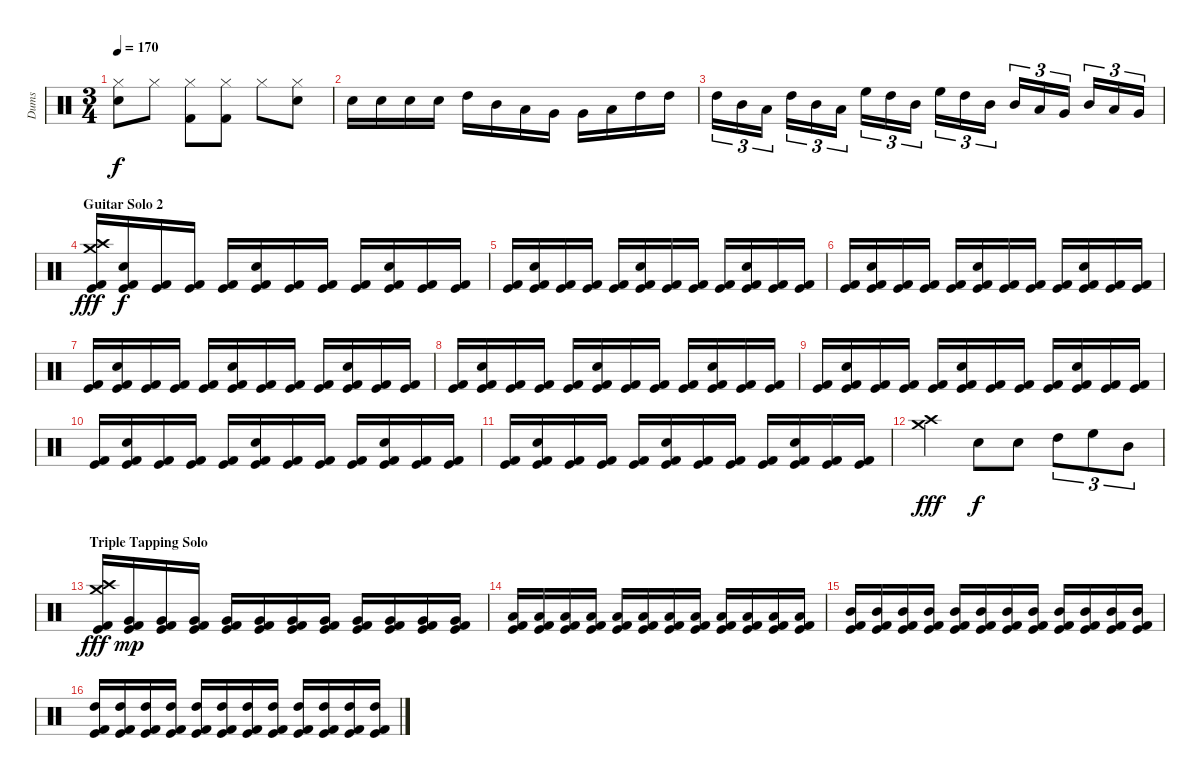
\track ("Dums" "Dums") {instrument percussion}
\staff {score}
\articulation defaults
\ts (3 4)
\tempo 170
\clef neutral
\ks c
("Hi-Hat (closed)" "Electric Snare (hit)").8{dy f} "Hi-Hat (closed)".8 ("Hi-Hat (closed)" "Kick (hit) 2").8 ("Hi-Hat (closed)" "Kick (hit) 2").8 "Hi-Hat (closed)".8 ("Hi-Hat (closed)" "Electric Snare (hit)").8 |
"Electric Snare (hit)".16 "Electric Snare (hit)".16 "Electric Snare (hit)".16 "Electric Snare (hit)".16 "High Tom (hit)".16 "Mid Tom (hit)".16 "Low Tom (hit)".16 "Very Low Tom (hit)".16 "Very Low Tom (hit)".16 "Low Tom (hit)".16 "High Tom (hit)".16 "High Tom (hit)".16 |
"High Tom (hit)".16{tu (3 2)} "Mid Tom (hit)".16{tu (3 2)} "Low Tom (hit)".16{tu (3 2)} "High Tom (hit)".16{tu (3 2)} "Mid Tom (hit)".16{tu (3 2)} "Low Tom (hit)".16{tu (3 2)} "High Floor Tom (hit)".16{tu (3 2)} "High Tom (hit)".16{tu (3 2)} "Mid Tom (hit)".16{tu (3 2)} "High Floor Tom (hit)".16{tu (3 2)} "High Tom (hit)".16{tu (3 2)} "Mid Tom (hit)".16{tu (3 2)} "Mid Tom (hit)".16{tu (3 2)} "Low Tom (hit)".16{tu (3 2)} "Very Low Tom (hit)".16{tu (3 2)} "Mid Tom (hit)".16{tu (3 2)} "Low Tom (hit)".16{tu (3 2)} "Very Low Tom (hit)".16{tu (3 2)} |
\section ("" "Guitar Solo 2")
("Crash high (hit)" "Crash medium (hit)" "Kick (hit)" "Kick (hit) 2").16{dy fff} ("Electric Snare (hit)" "Kick (hit)" "Kick (hit) 2").16{dy f} ("Kick (hit)" "Kick (hit) 2").16 ("Kick (hit)" "Kick (hit) 2").16 ("Kick (hit)" "Kick (hit) 2").16 ("Electric Snare (hit)" "Kick (hit)" "Kick (hit) 2").16 ("Kick (hit)" "Kick (hit) 2").16 ("Kick (hit)" "Kick (hit) 2").16 ("Kick (hit)" "Kick (hit) 2").16 ("Electric Snare (hit)" "Kick (hit)" "Kick (hit) 2").16 ("Kick (hit)" "Kick (hit) 2").16 ("Kick (hit)" "Kick (hit) 2").16 |
("Kick (hit)" "Kick (hit) 2").16 ("Electric Snare (hit)" "Kick (hit)" "Kick (hit) 2").16 ("Kick (hit)" "Kick (hit) 2").16 ("Kick (hit)" "Kick (hit) 2").16 ("Kick (hit)" "Kick (hit) 2").16 ("Electric Snare (hit)" "Kick (hit)" "Kick (hit) 2").16 ("Kick (hit)" "Kick (hit) 2").16 ("Kick (hit)" "Kick (hit) 2").16 ("Kick (hit)" "Kick (hit) 2").16 ("Electric Snare (hit)" "Kick (hit)" "Kick (hit) 2").16 ("Kick (hit)" "Kick (hit) 2").16 ("Kick (hit)" "Kick (hit) 2").16 |
("Kick (hit)" "Kick (hit) 2").16 ("Electric Snare (hit)" "Kick (hit)" "Kick (hit) 2").16 ("Kick (hit)" "Kick (hit) 2").16 ("Kick (hit)" "Kick (hit) 2").16 ("Kick (hit)" "Kick (hit) 2").16 ("Electric Snare (hit)" "Kick (hit)" "Kick (hit) 2").16 ("Kick (hit)" "Kick (hit) 2").16 ("Kick (hit)" "Kick (hit) 2").16 ("Kick (hit)" "Kick (hit) 2").16 ("Electric Snare (hit)" "Kick (hit)" "Kick (hit) 2").16 ("Kick (hit)" "Kick (hit) 2").16 ("Kick (hit)" "Kick (hit) 2").16 |
("Kick (hit)" "Kick (hit) 2").16 ("Electric Snare (hit)" "Kick (hit)" "Kick (hit) 2").16 ("Kick (hit)" "Kick (hit) 2").16 ("Kick (hit)" "Kick (hit) 2").16 ("Kick (hit)" "Kick (hit) 2").16 ("Electric Snare (hit)" "Kick (hit)" "Kick (hit) 2").16 ("Kick (hit)" "Kick (hit) 2").16 ("Kick (hit)" "Kick (hit) 2").16 ("Kick (hit)" "Kick (hit) 2").16 ("Electric Snare (hit)" "Kick (hit)" "Kick (hit) 2").16 ("Kick (hit)" "Kick (hit) 2").16 ("Kick (hit)" "Kick (hit) 2").16 |
("Kick (hit)" "Kick (hit) 2").16 ("Electric Snare (hit)" "Kick (hit)" "Kick (hit) 2").16 ("Kick (hit)" "Kick (hit) 2").16 ("Kick (hit)" "Kick (hit) 2").16 ("Kick (hit)" "Kick (hit) 2").16 ("Electric Snare (hit)" "Kick (hit)" "Kick (hit) 2").16 ("Kick (hit)" "Kick (hit) 2").16 ("Kick (hit)" "Kick (hit) 2").16 ("Kick (hit)" "Kick (hit) 2").16 ("Electric Snare (hit)" "Kick (hit)" "Kick (hit) 2").16 ("Kick (hit)" "Kick (hit) 2").16 ("Kick (hit)" "Kick (hit) 2").16 |
("Kick (hit)" "Kick (hit) 2").16 ("Electric Snare (hit)" "Kick (hit)" "Kick (hit) 2").16 ("Kick (hit)" "Kick (hit) 2").16 ("Kick (hit)" "Kick (hit) 2").16 ("Kick (hit)" "Kick (hit) 2").16 ("Electric Snare (hit)" "Kick (hit)" "Kick (hit) 2").16 ("Kick (hit)" "Kick (hit) 2").16 ("Kick (hit)" "Kick (hit) 2").16 ("Kick (hit)" "Kick (hit) 2").16 ("Electric Snare (hit)" "Kick (hit)" "Kick (hit) 2").16 ("Kick (hit)" "Kick (hit) 2").16 ("Kick (hit)" "Kick (hit) 2").16 |
("Kick (hit)" "Kick (hit) 2").16 ("Electric Snare (hit)" "Kick (hit)" "Kick (hit) 2").16 ("Kick (hit)" "Kick (hit) 2").16 ("Kick (hit)" "Kick (hit) 2").16 ("Kick (hit)" "Kick (hit) 2").16 ("Electric Snare (hit)" "Kick (hit)" "Kick (hit) 2").16 ("Kick (hit)" "Kick (hit) 2").16 ("Kick (hit)" "Kick (hit) 2").16 ("Kick (hit)" "Kick (hit) 2").16 ("Electric Snare (hit)" "Kick (hit)" "Kick (hit) 2").16 ("Kick (hit)" "Kick (hit) 2").16 ("Kick (hit)" "Kick (hit) 2").16 |
("Kick (hit)" "Kick (hit) 2").16 ("Electric Snare (hit)" "Kick (hit)" "Kick (hit) 2").16 ("Kick (hit)" "Kick (hit) 2").16 ("Kick (hit)" "Kick (hit) 2").16 ("Kick (hit)" "Kick (hit) 2").16 ("Electric Snare (hit)" "Kick (hit)" "Kick (hit) 2").16 ("Kick (hit)" "Kick (hit) 2").16 ("Kick (hit)" "Kick (hit) 2").16 ("Kick (hit)" "Kick (hit) 2").16 ("Electric Snare (hit)" "Kick (hit)" "Kick (hit) 2").16 ("Kick (hit)" "Kick (hit) 2").16 ("Kick (hit)" "Kick (hit) 2").16 |
("Crash medium (hit)" "Crash high (hit)").4{dy fff} "Electric Snare (hit)".8{dy f} "Electric Snare (hit)".8 "High Tom (hit)".8{tu (3 2)} "High Floor Tom (hit)".8{tu (3 2)} "Mid Tom (hit)".8{tu (3 2)} |
\section ("" "Triple Tapping Solo")
("Crash medium (hit)" "Crash high (hit)" "Kick (hit)" "Kick (hit) 2").16{dy fff} ("Very Low Tom (hit)" "Kick (hit)" "Kick (hit) 2").16{dy mp} ("Very Low Tom (hit)" "Kick (hit)" "Kick (hit) 2").16 ("Very Low Tom (hit)" "Kick (hit)" "Kick (hit) 2").16 ("Very Low Tom (hit)" "Kick (hit)" "Kick (hit) 2").16 ("Very Low Tom (hit)" "Kick (hit)" "Kick (hit) 2").16 ("Very Low Tom (hit)" "Kick (hit)" "Kick (hit) 2").16 ("Very Low Tom (hit)" "Kick (hit)" "Kick (hit) 2").16 ("Very Low Tom (hit)" "Kick (hit)" "Kick (hit) 2").16 ("Very Low Tom (hit)" "Kick (hit)" "Kick (hit) 2").16 ("Very Low Tom (hit)" "Kick (hit)" "Kick (hit) 2").16 ("Very Low Tom (hit)" "Kick (hit)" "Kick (hit) 2").16 |
("Low Tom (hit)" "Kick (hit)" "Kick (hit) 2").16 ("Low Tom (hit)" "Kick (hit)" "Kick (hit) 2").16 ("Low Tom (hit)" "Kick (hit)" "Kick (hit) 2").16 ("Low Tom (hit)" "Kick (hit)" "Kick (hit) 2").16 ("Low Tom (hit)" "Kick (hit)" "Kick (hit) 2").16 ("Low Tom (hit)" "Kick (hit)" "Kick (hit) 2").16 ("Low Tom (hit)" "Kick (hit)" "Kick (hit) 2").16 ("Low Tom (hit)" "Kick (hit)" "Kick (hit) 2").16 ("Low Tom (hit)" "Kick (hit)" "Kick (hit) 2").16 ("Low Tom (hit)" "Kick (hit)" "Kick (hit) 2").16 ("Low Tom (hit)" "Kick (hit)" "Kick (hit) 2").16 ("Low Tom (hit)" "Kick (hit)" "Kick (hit) 2").16 |
("Mid Tom (hit)" "Kick (hit)" "Kick (hit) 2").16 ("Mid Tom (hit)" "Kick (hit)" "Kick (hit) 2").16 ("Mid Tom (hit)" "Kick (hit)" "Kick (hit) 2").16 ("Mid Tom (hit)" "Kick (hit)" "Kick (hit) 2").16 ("Mid Tom (hit)" "Kick (hit)" "Kick (hit) 2").16 ("Mid Tom (hit)" "Kick (hit)" "Kick (hit) 2").16 ("Mid Tom (hit)" "Kick (hit)" "Kick (hit) 2").16 ("Mid Tom (hit)" "Kick (hit)" "Kick (hit) 2").16 ("Mid Tom (hit)" "Kick (hit)" "Kick (hit) 2").16 ("Mid Tom (hit)" "Kick (hit)" "Kick (hit) 2").16 ("Mid Tom (hit)" "Kick (hit)" "Kick (hit) 2").16 ("Mid Tom (hit)" "Kick (hit)" "Kick (hit) 2").16 |
("High Tom (hit)" "Kick (hit)" "Kick (hit) 2").16 ("High Tom (hit)" "Kick (hit)" "Kick (hit) 2").16 ("High Tom (hit)" "Kick (hit)" "Kick (hit) 2").16 ("High Tom (hit)" "Kick (hit)" "Kick (hit) 2").16 ("High Tom (hit)" "Kick (hit)" "Kick (hit) 2").16 ("High Tom (hit)" "Kick (hit)" "Kick (hit) 2").16 ("High Tom (hit)" "Kick (hit)" "Kick (hit) 2").16 ("High Tom (hit)" "Kick (hit)" "Kick (hit) 2").16 ("High Tom (hit)" "Kick (hit)" "Kick (hit) 2").16 ("High Tom (hit)" "Kick (hit)" "Kick (hit) 2").16 ("High Tom (hit)" "Kick (hit)" "Kick (hit) 2").16 ("High Tom (hit)" "Kick (hit)" "Kick (hit) 2").16
